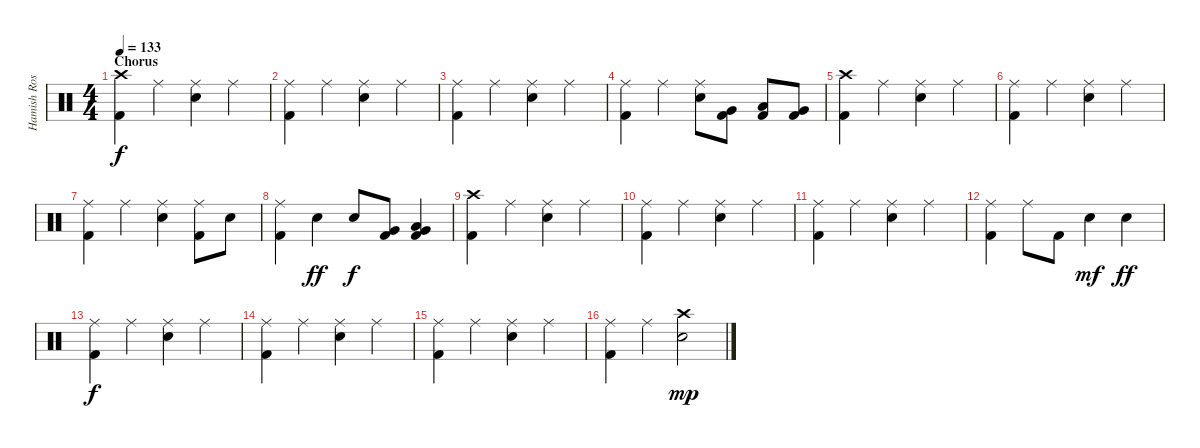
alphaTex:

\track ("Hamish Rosser" "Hamish Ros") {instrument percussion}
\staff {score}
\articulation defaults
\ts (4 4)
\section ("" "Chorus")
\tempo 133
\clef neutral
\ks c
("Crash high (hit)" "Kick (hit) 2").4{dy f} "Ride (middle)".4 ("Ride (middle)" "Electric Snare (hit)").4 "Ride (middle)".4 |
("Ride (middle)" "Kick (hit) 2").4 "Ride (middle)".4 ("Ride (middle)" "Electric Snare (hit)").4 "Ride (middle)".4 |
("Ride (middle)" "Kick (hit) 2").4 "Ride (middle)".4 ("Ride (middle)" "Electric Snare (hit)").4 "Ride (middle)".4 |
("Ride (middle)" "Kick (hit) 2").4 "Ride (middle)".4 ("Ride (middle)" "Electric Snare (hit)").8 ("Very Low Tom (hit)" "Kick (hit) 2").8 ("Low Tom (hit)" "Kick (hit) 2").8 ("Very Low Tom (hit)" "Kick (hit) 2").8 |
("Crash high (hit)" "Kick (hit) 2").4 "Ride (middle)".4 ("Ride (middle)" "Electric Snare (hit)").4 "Ride (middle)".4 |
("Ride (middle)" "Kick (hit) 2").4 "Ride (middle)".4 ("Ride (middle)" "Electric Snare (hit)").4 "Ride (middle)".4 |
("Ride (middle)" "Kick (hit) 2").4 "Ride (middle)".4 ("Ride (middle)" "Electric Snare (hit)").4 ("Ride (middle)" "Kick (hit) 2").8 "Electric Snare (hit)".8 |
("Ride (middle)" "Kick (hit) 2").4 "Electric Snare (hit)".4{dy ff} "Electric Snare (hit)".8{dy f} ("Very Low Tom (hit)" "Kick (hit) 2").8 ("Low Tom (hit)" "Very Low Tom (hit)" "Kick (hit) 2").4 |
("Crash high (hit)" "Kick (hit) 2").4 "Ride (middle)".4 ("Ride (middle)" "Electric Snare (hit)").4 "Ride (middle)".4 |
("Ride (middle)" "Kick (hit) 2").4 "Ride (middle)".4 ("Ride (middle)" "Electric Snare (hit)").4 "Ride (middle)".4 |
("Ride (middle)" "Kick (hit) 2").4 "Ride (middle)".4 ("Ride (middle)" "Electric Snare (hit)").4 "Ride (middle)".4 |
("Ride (middle)" "Kick (hit) 2").4 "Ride (middle)".8 "Kick (hit) 2".8 "Electric Snare (hit)".4{dy mf} "Electric Snare (hit)".4{dy ff} |
("Ride (middle)" "Kick (hit) 2").4{dy f} "Ride (middle)".4 ("Ride (middle)" "Electric Snare (hit)").4 "Ride (middle)".4 |
("Ride (middle)" "Kick (hit) 2").4 "Ride (middle)".4 ("Ride (middle)" "Electric Snare (hit)").4 "Ride (middle)".4 |
("Ride (middle)" "Kick (hit) 2").4 "Ride (middle)".4 ("Ride (middle)" "Electric Snare (hit)").4 "Ride (middle)".4 |
("Ride (middle)" "Kick (hit) 2").4 "Ride (middle)".4 ("Crash high (hit)" "Electric Snare (hit)").2{dy mp}
